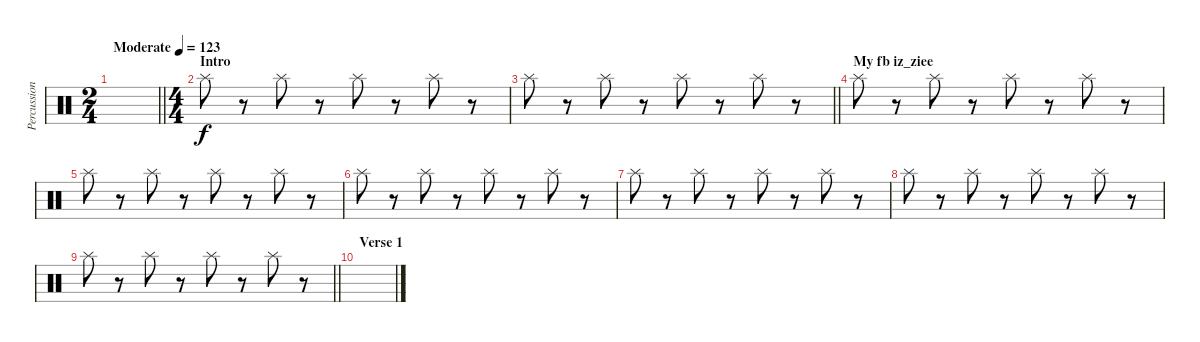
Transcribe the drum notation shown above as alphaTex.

\track ("Percussion 2" "Percussion") {instrument percussion}
\staff {score}
\articulation defaults
\ts (2 4)
\tempo (123 "Moderate")
\clef neutral
\barLineRight lightlight
\ks c
|
\ts (4 4)
\section ("" "Intro")
"Splash (hit)".8 r.8 "Splash (hit)".8 r.8 "Splash (hit)".8 r.8 "Splash (hit)".8 r.8 |
\barLineRight lightlight "Splash (hit)".8
r.8 "Splash (hit)".8 r.8 "Splash (hit)".8 r.8 "Splash (hit)".8 r.8 |
\section ("" "My fb iz_ziee")
"Splash (hit)".8 r.8 "Splash (hit)".8 r.8 "Splash (hit)".8 r.8 "Splash (hit)".8 r.8 |
"Splash (hit)".8 r.8 "Splash (hit)".8 r.8 "Splash (hit)".8 r.8 "Splash (hit)".8 r.8 |
"Splash (hit)".8 r.8 "Splash (hit)".8 r.8 "Splash (hit)".8 r.8 "Splash (hit)".8 r.8 |
"Splash (hit)".8 r.8 "Splash (hit)".8 r.8 "Splash (hit)".8 r.8 "Splash (hit)".8 r.8 |
"Splash (hit)".8 r.8 "Splash (hit)".8 r.8 "Splash (hit)".8 r.8 "Splash (hit)".8 r.8 |
\barLineRight lightlight "Splash (hit)".8
r.8 "Splash (hit)".8 r.8 "Splash (hit)".8 r.8 "Splash (hit)".8 r.8 |
\section ("" "Verse 1")
